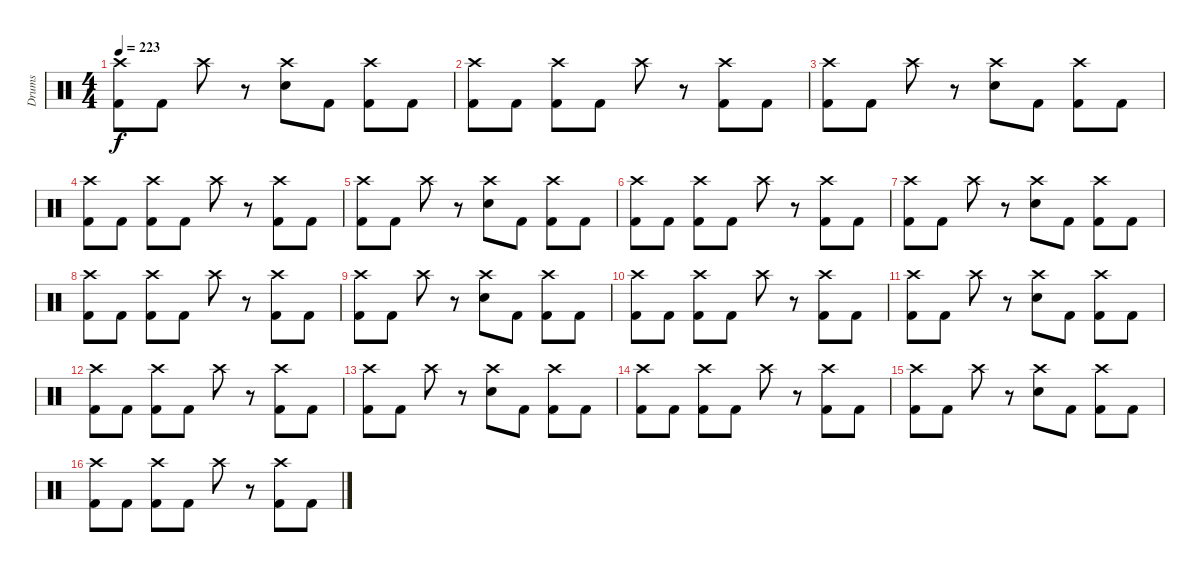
\track ("Drums" "Drums") {instrument percussion bank 177}
\staff {score}
\articulation defaults
\ts (4 4)
\tempo 223
\clef neutral
\ks c
("Crash high (hit)" "Kick (hit) 2").8{dy f} "Kick (hit) 2".8 "Crash high (hit)".8 r.8 ("Crash high (hit)" "Electric Snare (hit)").8 "Kick (hit) 2".8 ("Crash high (hit)" "Kick (hit) 2").8 "Kick (hit) 2".8 |
("Crash high (hit)" "Kick (hit) 2").8 "Kick (hit) 2".8 ("Crash high (hit)" "Kick (hit) 2").8 "Kick (hit) 2".8 "Crash high (hit)".8 r.8 ("Crash high (hit)" "Kick (hit) 2").8 "Kick (hit) 2".8 |
("Crash high (hit)" "Kick (hit) 2").8 "Kick (hit) 2".8 "Crash high (hit)".8 r.8 ("Crash high (hit)" "Electric Snare (hit)").8 "Kick (hit) 2".8 ("Crash high (hit)" "Kick (hit) 2").8 "Kick (hit) 2".8 |
("Crash high (hit)" "Kick (hit) 2").8 "Kick (hit) 2".8 ("Crash high (hit)" "Kick (hit) 2").8 "Kick (hit) 2".8 "Crash high (hit)".8 r.8 ("Crash high (hit)" "Kick (hit) 2").8 "Kick (hit) 2".8 |
("Crash high (hit)" "Kick (hit) 2").8 "Kick (hit) 2".8 "Crash high (hit)".8 r.8 ("Crash high (hit)" "Electric Snare (hit)").8 "Kick (hit) 2".8 ("Crash high (hit)" "Kick (hit) 2").8 "Kick (hit) 2".8 |
("Crash high (hit)" "Kick (hit) 2").8 "Kick (hit) 2".8 ("Crash high (hit)" "Kick (hit) 2").8 "Kick (hit) 2".8 "Crash high (hit)".8 r.8 ("Crash high (hit)" "Kick (hit) 2").8 "Kick (hit) 2".8 |
("Crash high (hit)" "Kick (hit) 2").8 "Kick (hit) 2".8 "Crash high (hit)".8 r.8 ("Crash high (hit)" "Electric Snare (hit)").8 "Kick (hit) 2".8 ("Crash high (hit)" "Kick (hit) 2").8 "Kick (hit) 2".8 |
("Crash high (hit)" "Kick (hit) 2").8 "Kick (hit) 2".8 ("Crash high (hit)" "Kick (hit) 2").8 "Kick (hit) 2".8 "Crash high (hit)".8 r.8 ("Crash high (hit)" "Kick (hit) 2").8 "Kick (hit) 2".8 |
("Crash high (hit)" "Kick (hit) 2").8 "Kick (hit) 2".8 "Crash high (hit)".8 r.8 ("Crash high (hit)" "Electric Snare (hit)").8 "Kick (hit) 2".8 ("Crash high (hit)" "Kick (hit) 2").8 "Kick (hit) 2".8 |
("Crash high (hit)" "Kick (hit) 2").8 "Kick (hit) 2".8 ("Crash high (hit)" "Kick (hit) 2").8 "Kick (hit) 2".8 "Crash high (hit)".8 r.8 ("Crash high (hit)" "Kick (hit) 2").8 "Kick (hit) 2".8 |
("Crash high (hit)" "Kick (hit) 2").8 "Kick (hit) 2".8 "Crash high (hit)".8 r.8 ("Crash high (hit)" "Electric Snare (hit)").8 "Kick (hit) 2".8 ("Crash high (hit)" "Kick (hit) 2").8 "Kick (hit) 2".8 |
("Crash high (hit)" "Kick (hit) 2").8 "Kick (hit) 2".8 ("Crash high (hit)" "Kick (hit) 2").8 "Kick (hit) 2".8 "Crash high (hit)".8 r.8 ("Crash high (hit)" "Kick (hit) 2").8 "Kick (hit) 2".8 |
("Crash high (hit)" "Kick (hit) 2").8 "Kick (hit) 2".8 "Crash high (hit)".8 r.8 ("Crash high (hit)" "Electric Snare (hit)").8 "Kick (hit) 2".8 ("Crash high (hit)" "Kick (hit) 2").8 "Kick (hit) 2".8 |
("Crash high (hit)" "Kick (hit) 2").8 "Kick (hit) 2".8 ("Crash high (hit)" "Kick (hit) 2").8 "Kick (hit) 2".8 "Crash high (hit)".8 r.8 ("Crash high (hit)" "Kick (hit) 2").8 "Kick (hit) 2".8 |
("Crash high (hit)" "Kick (hit) 2").8 "Kick (hit) 2".8 "Crash high (hit)".8 r.8 ("Crash high (hit)" "Electric Snare (hit)").8 "Kick (hit) 2".8 ("Crash high (hit)" "Kick (hit) 2").8 "Kick (hit) 2".8 |
("Crash high (hit)" "Kick (hit) 2").8 "Kick (hit) 2".8 ("Crash high (hit)" "Kick (hit) 2").8 "Kick (hit) 2".8 "Crash high (hit)".8 r.8 ("Crash high (hit)" "Kick (hit) 2").8 "Kick (hit) 2".8
